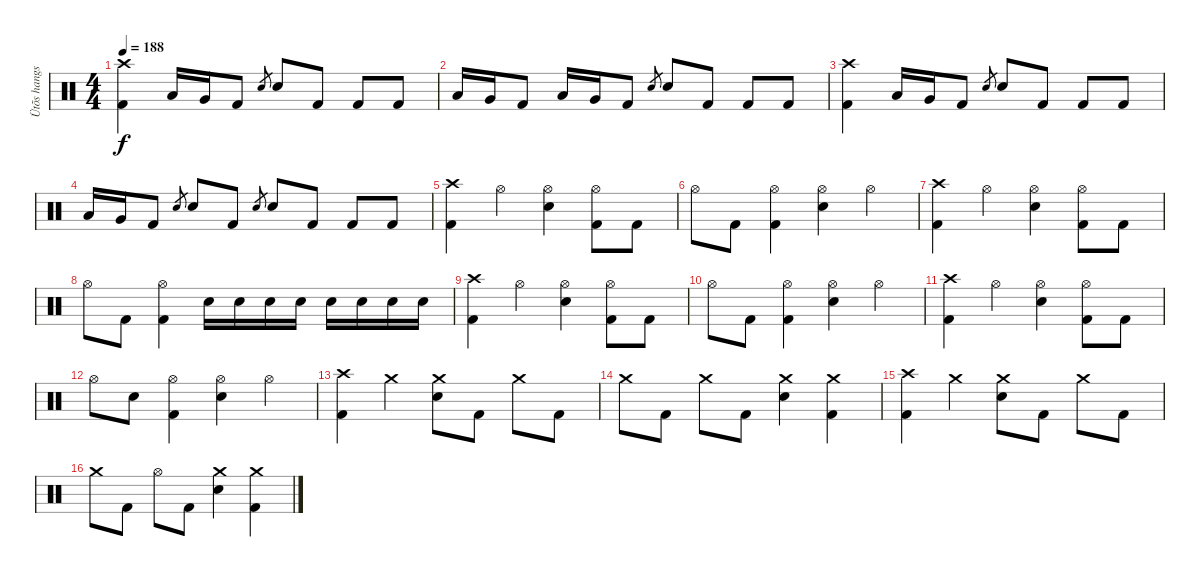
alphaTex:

\track ("Ütõs hangszer" "Ütõs hangs") {instrument percussion}
\staff {score}
\articulation defaults
\ts (4 4)
\tempo 188
\clef neutral
\ks c
("Crash high (hit)" "Kick (hit) 2").4{dy f} "Low Tom (hit)".16 "Very Low Tom (hit)".16 "Kick (hit) 2".8 "Electric Snare (hit)".8{gr} "Electric Snare (hit)".8 "Kick (hit) 2".8 "Kick (hit) 2".8 "Kick (hit) 2".8 |
"Low Tom (hit)".16 "Very Low Tom (hit)".16 "Kick (hit) 2".8 "Low Tom (hit)".16 "Very Low Tom (hit)".16 "Kick (hit) 2".8 "Electric Snare (hit)".8{gr} "Electric Snare (hit)".8 "Kick (hit) 2".8 "Kick (hit) 2".8 "Kick (hit) 2".8 |
("Crash high (hit)" "Kick (hit) 2").4 "Low Tom (hit)".16 "Very Low Tom (hit)".16 "Kick (hit) 2".8 "Electric Snare (hit)".8{gr} "Electric Snare (hit)".8 "Kick (hit) 2".8 "Kick (hit) 2".8 "Kick (hit) 2".8 |
"Low Tom (hit)".16 "Very Low Tom (hit)".16 "Kick (hit) 2".8 "Electric Snare (hit)".8{gr} "Electric Snare (hit)".8 "Kick (hit) 2".8 "Electric Snare (hit)".8{gr} "Electric Snare (hit)".8 "Kick (hit) 2".8 "Kick (hit) 2".8 "Kick (hit) 2".8 |
("Crash high (hit)" "Kick (hit) 2").4 "Hi-Hat (open)".4 ("Hi-Hat (open)" "Electric Snare (hit)").4 ("Hi-Hat (open)" "Kick (hit) 2").8 "Kick (hit) 2".8 |
"Hi-Hat (open)".8 "Kick (hit) 2".8 ("Hi-Hat (open)" "Kick (hit) 2").4 ("Hi-Hat (open)" "Electric Snare (hit)").4 "Hi-Hat (open)".4 |
("Crash high (hit)" "Kick (hit) 2").4 "Hi-Hat (open)".4 ("Hi-Hat (open)" "Electric Snare (hit)").4 ("Hi-Hat (open)" "Kick (hit) 2").8 "Kick (hit) 2".8 |
"Hi-Hat (open)".8 "Kick (hit) 2".8 ("Hi-Hat (open)" "Kick (hit) 2").4 "Electric Snare (hit)".16 "Electric Snare (hit)".16 "Electric Snare (hit)".16 "Electric Snare (hit)".16 "Electric Snare (hit)".16 "Electric Snare (hit)".16 "Electric Snare (hit)".16 "Electric Snare (hit)".16 |
("Crash high (hit)" "Kick (hit) 2").4 "Hi-Hat (open)".4 ("Hi-Hat (open)" "Electric Snare (hit)").4 ("Hi-Hat (open)" "Kick (hit) 2").8 "Kick (hit) 2".8 |
"Hi-Hat (open)".8 "Kick (hit) 2".8 ("Hi-Hat (open)" "Kick (hit) 2").4 ("Hi-Hat (open)" "Electric Snare (hit)").4 "Hi-Hat (open)".4 |
("Crash high (hit)" "Kick (hit) 2").4 "Hi-Hat (open)".4 ("Hi-Hat (open)" "Electric Snare (hit)").4 ("Hi-Hat (open)" "Kick (hit) 2").8 "Kick (hit) 2".8 |
"Hi-Hat (open)".8 "Electric Snare (hit)".8 ("Hi-Hat (open)" "Kick (hit) 2").4 ("Hi-Hat (open)" "Electric Snare (hit)").4 "Hi-Hat (open)".4 |
("Crash high (hit)" "Kick (hit) 2").4 "Crash medium (hit)".4 ("Crash medium (hit)" "Electric Snare (hit)").8 "Kick (hit) 2".8 "Crash medium (hit)".8 "Kick (hit) 2".8 |
"Crash medium (hit)".8 "Kick (hit) 2".8 "Crash medium (hit)".8 "Kick (hit) 2".8 ("Crash medium (hit)" "Electric Snare (hit)").4 ("Crash medium (hit)" "Kick (hit) 2").4 |
("Crash high (hit)" "Kick (hit) 2").4 "Crash medium (hit)".4 ("Crash medium (hit)" "Electric Snare (hit)").8 "Kick (hit) 2".8 "Crash medium (hit)".8 "Kick (hit) 2".8 |
"Crash medium (hit)".8 "Kick (hit) 2".8 "Hi-Hat (open)".8 "Kick (hit) 2".8 ("Crash medium (hit)" "Electric Snare (hit)").4 ("Crash medium (hit)" "Kick (hit) 2").4
